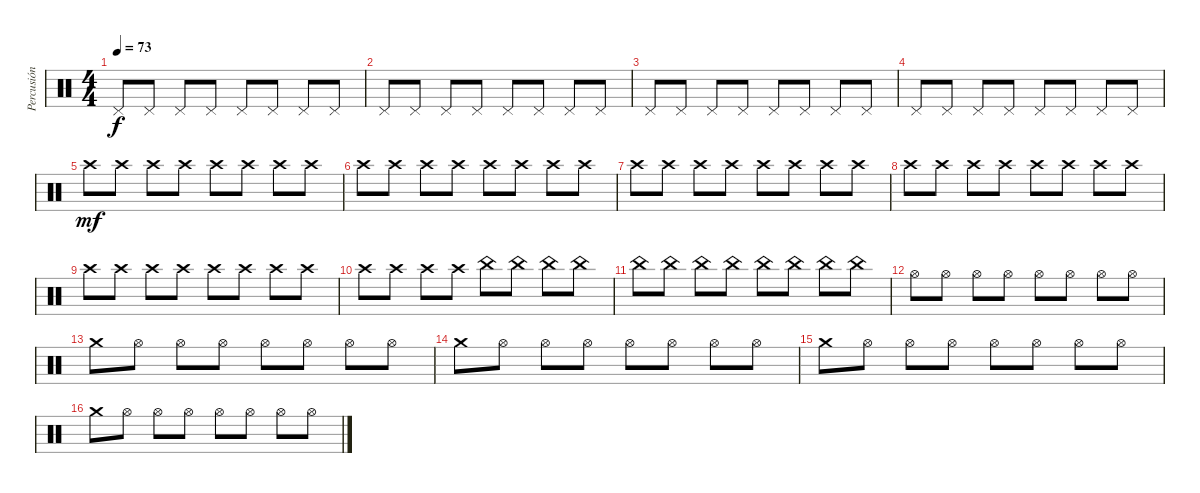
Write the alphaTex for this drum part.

\track ("Percusión" "Percusión") {instrument percussion}
\staff {score}
\articulation defaults
\ts (4 4)
\tempo 73
\clef neutral
\ks c "Pedal Hi-Hat (hit)".8{dy f} "Pedal Hi-Hat (hit)".8 "Pedal Hi-Hat (hit)".8 "Pedal Hi-Hat (hit)".8 "Pedal Hi-Hat (hit)".8 "Pedal Hi-Hat (hit)".8 "Pedal Hi-Hat (hit)".8 "Pedal Hi-Hat (hit)".8
|
"Pedal Hi-Hat (hit)".8 "Pedal Hi-Hat (hit)".8 "Pedal Hi-Hat (hit)".8 "Pedal Hi-Hat (hit)".8 "Pedal Hi-Hat (hit)".8 "Pedal Hi-Hat (hit)".8 "Pedal Hi-Hat (hit)".8 "Pedal Hi-Hat (hit)".8 |
"Pedal Hi-Hat (hit)".8 "Pedal Hi-Hat (hit)".8 "Pedal Hi-Hat (hit)".8 "Pedal Hi-Hat (hit)".8 "Pedal Hi-Hat (hit)".8 "Pedal Hi-Hat (hit)".8 "Pedal Hi-Hat (hit)".8 "Pedal Hi-Hat (hit)".8 |
"Pedal Hi-Hat (hit)".8 "Pedal Hi-Hat (hit)".8 "Pedal Hi-Hat (hit)".8 "Pedal Hi-Hat (hit)".8 "Pedal Hi-Hat (hit)".8 "Pedal Hi-Hat (hit)".8 "Pedal Hi-Hat (hit)".8 "Pedal Hi-Hat (hit)".8 |
"Crash high (hit)".8{dy mf} "Crash high (hit)".8 "Crash high (hit)".8 "Crash high (hit)".8 "Crash high (hit)".8 "Crash high (hit)".8 "Crash high (hit)".8 "Crash high (hit)".8 |
"Crash high (hit)".8 "Crash high (hit)".8 "Crash high (hit)".8 "Crash high (hit)".8 "Crash high (hit)".8 "Crash high (hit)".8 "Crash high (hit)".8 "Crash high (hit)".8 |
"Crash high (hit)".8 "Crash high (hit)".8 "Crash high (hit)".8 "Crash high (hit)".8 "Crash high (hit)".8 "Crash high (hit)".8 "Crash high (hit)".8 "Crash high (hit)".8 |
"Crash high (hit)".8 "Crash high (hit)".8 "Crash high (hit)".8 "Crash high (hit)".8 "Crash high (hit)".8 "Crash high (hit)".8 "Crash high (hit)".8 "Crash high (hit)".8 |
"Crash high (hit)".8 "Crash high (hit)".8 "Crash high (hit)".8 "Crash high (hit)".8 "Crash high (hit)".8 "Crash high (hit)".8 "Crash high (hit)".8 "Crash high (hit)".8 |
"Crash high (hit)".8 "Crash high (hit)".8 "Crash high (hit)".8 "Crash high (hit)".8 "China (hit)".8 "China (hit)".8 "China (hit)".8 "China (hit)".8 |
"China (hit)".8 "China (hit)".8 "China (hit)".8 "China (hit)".8 "China (hit)".8 "China (hit)".8 "China (hit)".8 "China (hit)".8 |
"Hi-Hat (open)".8 "Hi-Hat (open)".8 "Hi-Hat (open)".8 "Hi-Hat (open)".8 "Hi-Hat (open)".8 "Hi-Hat (open)".8 "Hi-Hat (open)".8 "Hi-Hat (open)".8 |
"Crash medium (hit)".8 "Hi-Hat (open)".8 "Hi-Hat (open)".8 "Hi-Hat (open)".8 "Hi-Hat (open)".8 "Hi-Hat (open)".8 "Hi-Hat (open)".8 "Hi-Hat (open)".8 |
"Crash medium (hit)".8 "Hi-Hat (open)".8 "Hi-Hat (open)".8 "Hi-Hat (open)".8 "Hi-Hat (open)".8 "Hi-Hat (open)".8 "Hi-Hat (open)".8 "Hi-Hat (open)".8 |
"Crash medium (hit)".8 "Hi-Hat (open)".8 "Hi-Hat (open)".8 "Hi-Hat (open)".8 "Hi-Hat (open)".8 "Hi-Hat (open)".8 "Hi-Hat (open)".8 "Hi-Hat (open)".8 |
"Crash medium (hit)".8 "Hi-Hat (open)".8 "Hi-Hat (open)".8 "Hi-Hat (open)".8 "Hi-Hat (open)".8 "Hi-Hat (open)".8 "Hi-Hat (open)".8 "Hi-Hat (open)".8
